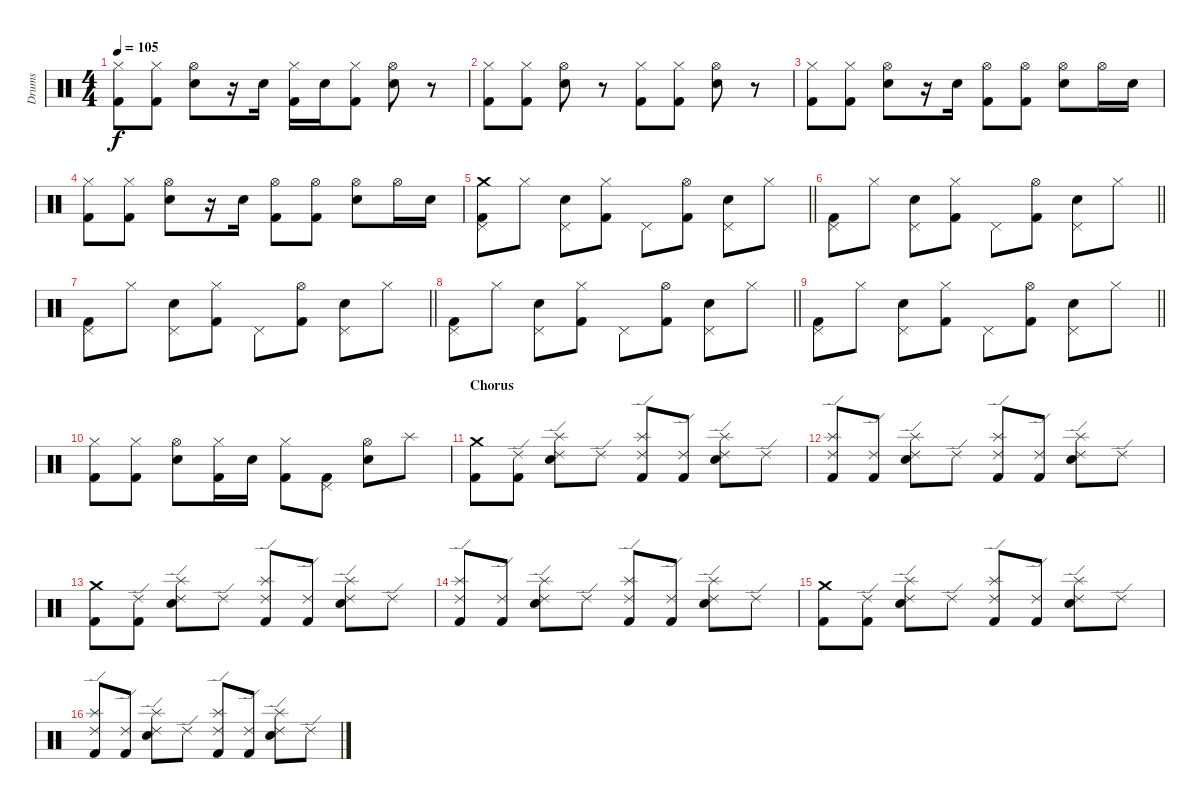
\track ("Drums" "Drums") {instrument percussion}
\staff {score}
\articulation defaults
\ts (4 4)
\tempo 105
\clef neutral
\ks c
("Hi-Hat (closed)" "Kick (hit) 2").8{dy f} ("Hi-Hat (closed)" "Kick (hit) 2").8 ("Hi-Hat (open)" "Electric Snare (hit)").8 r.16 "Electric Snare (hit)".16 ("Hi-Hat (closed)" "Kick (hit) 2").16 "Electric Snare (hit)".16 ("Hi-Hat (closed)" "Kick (hit) 2").8 ("Hi-Hat (open)" "Electric Snare (hit)").8 r.8 |
("Hi-Hat (closed)" "Kick (hit) 2").8 ("Hi-Hat (closed)" "Kick (hit) 2").8 ("Hi-Hat (open)" "Electric Snare (hit)").8 r.8 ("Hi-Hat (closed)" "Kick (hit) 2").8 ("Hi-Hat (closed)" "Kick (hit) 2").8 ("Hi-Hat (open)" "Electric Snare (hit)").8 r.8 |
("Hi-Hat (closed)" "Kick (hit) 2").8 ("Hi-Hat (closed)" "Kick (hit) 2").8 ("Hi-Hat (open)" "Electric Snare (hit)").8 r.16 "Electric Snare (hit)".16 ("Hi-Hat (open)" "Kick (hit) 2").8 ("Hi-Hat (open)" "Kick (hit) 2").8 ("Hi-Hat (open)" "Electric Snare (hit)").8 "Hi-Hat (open)".16 "Electric Snare (hit)".16 |
("Hi-Hat (closed)" "Kick (hit) 2").8 ("Hi-Hat (closed)" "Kick (hit) 2").8 ("Hi-Hat (open)" "Electric Snare (hit)").8 r.16 "Electric Snare (hit)".16 ("Hi-Hat (open)" "Kick (hit) 2").8 ("Hi-Hat (open)" "Kick (hit) 2").8 ("Hi-Hat (open)" "Electric Snare (hit)").8 "Hi-Hat (open)".16 "Electric Snare (hit)".16 |
\barLineRight lightlight
("Pedal Hi-Hat (hit)" "Crash medium (hit)" "Kick (hit) 2").8 "Hi-Hat (closed)".8 ("Pedal Hi-Hat (hit)" "Electric Snare (hit)").8 ("Hi-Hat (closed)" "Kick (hit) 2").8 "Pedal Hi-Hat (hit)".8 ("Hi-Hat (open)" "Kick (hit) 2").8 ("Pedal Hi-Hat (hit)" "Electric Snare (hit)").8 "Hi-Hat (closed)".8 |
\barLineRight lightlight
("Pedal Hi-Hat (hit)" "Kick (hit) 2").8 "Hi-Hat (closed)".8 ("Pedal Hi-Hat (hit)" "Electric Snare (hit)").8 ("Hi-Hat (closed)" "Kick (hit) 2").8 "Pedal Hi-Hat (hit)".8 ("Hi-Hat (open)" "Kick (hit) 2").8 ("Pedal Hi-Hat (hit)" "Electric Snare (hit)").8 "Hi-Hat (closed)".8 |
\barLineRight lightlight
("Pedal Hi-Hat (hit)" "Kick (hit) 2").8 "Hi-Hat (closed)".8 ("Pedal Hi-Hat (hit)" "Electric Snare (hit)").8 ("Hi-Hat (closed)" "Kick (hit) 2").8 "Pedal Hi-Hat (hit)".8 ("Hi-Hat (open)" "Kick (hit) 2").8 ("Pedal Hi-Hat (hit)" "Electric Snare (hit)").8 "Hi-Hat (closed)".8 |
\barLineRight lightlight
("Pedal Hi-Hat (hit)" "Kick (hit) 2").8 "Hi-Hat (closed)".8 ("Pedal Hi-Hat (hit)" "Electric Snare (hit)").8 ("Hi-Hat (closed)" "Kick (hit) 2").8 "Pedal Hi-Hat (hit)".8 ("Hi-Hat (open)" "Kick (hit) 2").8 ("Pedal Hi-Hat (hit)" "Electric Snare (hit)").8 "Hi-Hat (closed)".8 |
\barLineRight lightlight
("Pedal Hi-Hat (hit)" "Kick (hit) 2").8 "Hi-Hat (closed)".8 ("Pedal Hi-Hat (hit)" "Electric Snare (hit)").8 ("Hi-Hat (closed)" "Kick (hit) 2").8 "Pedal Hi-Hat (hit)".8 ("Hi-Hat (open)" "Kick (hit) 2").8 ("Pedal Hi-Hat (hit)" "Electric Snare (hit)").8 "Hi-Hat (closed)".8 |
("Hi-Hat (closed)" "Kick (hit) 2").8 ("Hi-Hat (closed)" "Kick (hit) 2").8 ("Hi-Hat (open)" "Electric Snare (hit)").8 ("Hi-Hat (closed)" "Kick (hit) 2").16 "Electric Snare (hit)".16 ("Hi-Hat (closed)" "Kick (hit) 2").8 ("Pedal Hi-Hat (hit)" "Kick (hit) 2").8 ("Hi-Hat (open)" "Electric Snare (hit)").8 "Splash (hit)".8 |
\section ("" "Chorus")
("Crash medium (hit)" "Kick (hit) 2").8 ("Ride (edge) 2" "Kick (hit) 2").8 ("Ride (edge) 2" "Splash (hit)" "Electric Snare (hit)").8 "Ride (edge) 2".8 ("Ride (edge) 2" "Splash (hit)" "Kick (hit) 2").8 ("Ride (edge) 2" "Kick (hit) 2").8 ("Ride (edge) 2" "Splash (hit)" "Electric Snare (hit)").8 "Ride (edge) 2".8 |
("Ride (edge) 2" "Splash (hit)" "Kick (hit) 2").8 ("Ride (edge) 2" "Kick (hit) 2").8 ("Ride (edge) 2" "Splash (hit)" "Electric Snare (hit)").8 "Ride (edge) 2".8 ("Ride (edge) 2" "Splash (hit)" "Kick (hit) 2").8 ("Ride (edge) 2" "Kick (hit) 2").8 ("Ride (edge) 2" "Splash (hit)" "Electric Snare (hit)").8 "Ride (edge) 2".8 |
("Crash medium (hit)" "Kick (hit) 2").8 ("Ride (edge) 2" "Kick (hit) 2").8 ("Ride (edge) 2" "Splash (hit)" "Electric Snare (hit)").8 "Ride (edge) 2".8 ("Ride (edge) 2" "Splash (hit)" "Kick (hit) 2").8 ("Ride (edge) 2" "Kick (hit) 2").8 ("Ride (edge) 2" "Splash (hit)" "Electric Snare (hit)").8 "Ride (edge) 2".8 |
("Ride (edge) 2" "Splash (hit)" "Kick (hit) 2").8 ("Ride (edge) 2" "Kick (hit) 2").8 ("Ride (edge) 2" "Splash (hit)" "Electric Snare (hit)").8 "Ride (edge) 2".8 ("Ride (edge) 2" "Splash (hit)" "Kick (hit) 2").8 ("Ride (edge) 2" "Kick (hit) 2").8 ("Ride (edge) 2" "Splash (hit)" "Electric Snare (hit)").8 "Ride (edge) 2".8 |
("Crash medium (hit)" "Kick (hit) 2").8 ("Ride (edge) 2" "Kick (hit) 2").8 ("Ride (edge) 2" "Splash (hit)" "Electric Snare (hit)").8 "Ride (edge) 2".8 ("Ride (edge) 2" "Splash (hit)" "Kick (hit) 2").8 ("Ride (edge) 2" "Kick (hit) 2").8 ("Ride (edge) 2" "Splash (hit)" "Electric Snare (hit)").8 "Ride (edge) 2".8 |
("Ride (edge) 2" "Splash (hit)" "Kick (hit) 2").8 ("Ride (edge) 2" "Kick (hit) 2").8 ("Ride (edge) 2" "Splash (hit)" "Electric Snare (hit)").8 "Ride (edge) 2".8 ("Ride (edge) 2" "Splash (hit)" "Kick (hit) 2").8 ("Ride (edge) 2" "Kick (hit) 2").8 ("Ride (edge) 2" "Splash (hit)" "Electric Snare (hit)").8 "Ride (edge) 2".8
